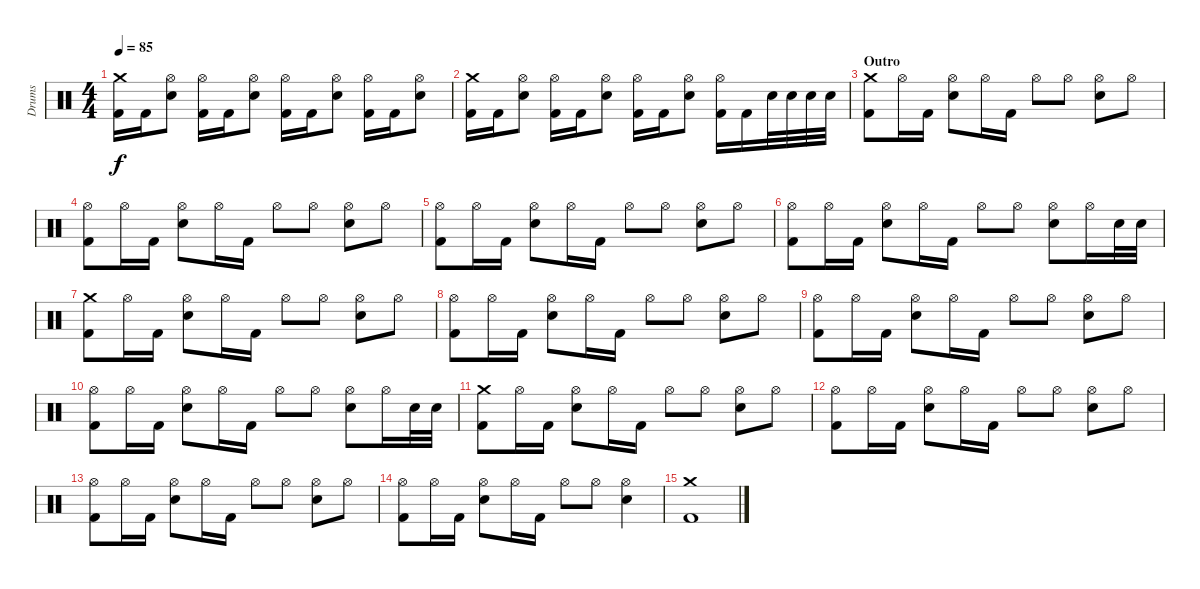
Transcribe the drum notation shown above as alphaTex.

\track ("Drums" "Drums") {instrument percussion}
\staff {score}
\articulation defaults
\ts (4 4)
\tempo 85
\clef neutral
\ks c
("Crash medium (hit)" "Kick (hit) 2").16{dy f} "Kick (hit) 2".16 ("Hi-Hat (open)" "Electric Snare (hit)").8 ("Hi-Hat (open)" "Kick (hit) 2").16 "Kick (hit) 2".16 ("Hi-Hat (open)" "Electric Snare (hit)").8 ("Hi-Hat (open)" "Kick (hit) 2").16 "Kick (hit) 2".16 ("Hi-Hat (open)" "Electric Snare (hit)").8 ("Hi-Hat (open)" "Kick (hit) 2").16 "Kick (hit) 2".16 ("Hi-Hat (open)" "Electric Snare (hit)").8 |
("Crash medium (hit)" "Kick (hit) 2").16 "Kick (hit) 2".16 ("Hi-Hat (open)" "Electric Snare (hit)").8 ("Hi-Hat (open)" "Kick (hit) 2").16 "Kick (hit) 2".16 ("Hi-Hat (open)" "Electric Snare (hit)").8 ("Hi-Hat (open)" "Kick (hit) 2").16 "Kick (hit) 2".16 ("Hi-Hat (open)" "Electric Snare (hit)").8 ("Hi-Hat (open)" "Kick (hit) 2").16 "Kick (hit) 2".16 "Electric Snare (hit)".32 "Electric Snare (hit)".32 "Electric Snare (hit)".32 "Electric Snare (hit)".32 |
\section ("" "Outro")
("Crash medium (hit)" "Kick (hit) 2").8 "Hi-Hat (open)".16 "Kick (hit) 2".16 ("Hi-Hat (open)" "Electric Snare (hit)").8 "Hi-Hat (open)".16 "Kick (hit) 2".16 "Hi-Hat (open)".8 "Hi-Hat (open)".8 ("Hi-Hat (open)" "Electric Snare (hit)").8 "Hi-Hat (open)".8 |
("Hi-Hat (open)" "Kick (hit) 2").8 "Hi-Hat (open)".16 "Kick (hit) 2".16 ("Hi-Hat (open)" "Electric Snare (hit)").8 "Hi-Hat (open)".16 "Kick (hit) 2".16 "Hi-Hat (open)".8 "Hi-Hat (open)".8 ("Hi-Hat (open)" "Electric Snare (hit)").8 "Hi-Hat (open)".8 |
("Hi-Hat (open)" "Kick (hit) 2").8 "Hi-Hat (open)".16 "Kick (hit) 2".16 ("Hi-Hat (open)" "Electric Snare (hit)").8 "Hi-Hat (open)".16 "Kick (hit) 2".16 "Hi-Hat (open)".8 "Hi-Hat (open)".8 ("Hi-Hat (open)" "Electric Snare (hit)").8 "Hi-Hat (open)".8 |
("Hi-Hat (open)" "Kick (hit) 2").8 "Hi-Hat (open)".16 "Kick (hit) 2".16 ("Hi-Hat (open)" "Electric Snare (hit)").8 "Hi-Hat (open)".16 "Kick (hit) 2".16 "Hi-Hat (open)".8 "Hi-Hat (open)".8 ("Hi-Hat (open)" "Electric Snare (hit)").8 "Hi-Hat (open)".16 "Electric Snare (hit)".32 "Electric Snare (hit)".32 |
("Crash medium (hit)" "Kick (hit) 2").8{volume 10} "Hi-Hat (open)".16 "Kick (hit) 2".16 ("Hi-Hat (open)" "Electric Snare (hit)").8 "Hi-Hat (open)".16 "Kick (hit) 2".16 "Hi-Hat (open)".8 "Hi-Hat (open)".8 ("Hi-Hat (open)" "Electric Snare (hit)").8 "Hi-Hat (open)".8 |
("Hi-Hat (open)" "Kick (hit) 2").8 "Hi-Hat (open)".16 "Kick (hit) 2".16 ("Hi-Hat (open)" "Electric Snare (hit)").8 "Hi-Hat (open)".16 "Kick (hit) 2".16 "Hi-Hat (open)".8 "Hi-Hat (open)".8 ("Hi-Hat (open)" "Electric Snare (hit)").8 "Hi-Hat (open)".8 |
("Hi-Hat (open)" "Kick (hit) 2").8{volume 5} "Hi-Hat (open)".16 "Kick (hit) 2".16 ("Hi-Hat (open)" "Electric Snare (hit)").8 "Hi-Hat (open)".16 "Kick (hit) 2".16 "Hi-Hat (open)".8 "Hi-Hat (open)".8 ("Hi-Hat (open)" "Electric Snare (hit)").8 "Hi-Hat (open)".8 |
("Hi-Hat (open)" "Kick (hit) 2").8 "Hi-Hat (open)".16 "Kick (hit) 2".16 ("Hi-Hat (open)" "Electric Snare (hit)").8 "Hi-Hat (open)".16 "Kick (hit) 2".16 "Hi-Hat (open)".8 "Hi-Hat (open)".8 ("Hi-Hat (open)" "Electric Snare (hit)").8 "Hi-Hat (open)".16 "Electric Snare (hit)".32 "Electric Snare (hit)".32 |
("Crash medium (hit)" "Kick (hit) 2").8{volume 3} "Hi-Hat (open)".16 "Kick (hit) 2".16 ("Hi-Hat (open)" "Electric Snare (hit)").8 "Hi-Hat (open)".16 "Kick (hit) 2".16 "Hi-Hat (open)".8 "Hi-Hat (open)".8 ("Hi-Hat (open)" "Electric Snare (hit)").8 "Hi-Hat (open)".8 |
("Hi-Hat (open)" "Kick (hit) 2").8 "Hi-Hat (open)".16 "Kick (hit) 2".16 ("Hi-Hat (open)" "Electric Snare (hit)").8 "Hi-Hat (open)".16 "Kick (hit) 2".16 "Hi-Hat (open)".8 "Hi-Hat (open)".8 ("Hi-Hat (open)" "Electric Snare (hit)").8 "Hi-Hat (open)".8 |
("Hi-Hat (open)" "Kick (hit) 2").8{volume 0} "Hi-Hat (open)".16 "Kick (hit) 2".16 ("Hi-Hat (open)" "Electric Snare (hit)").8 "Hi-Hat (open)".16 "Kick (hit) 2".16 "Hi-Hat (open)".8 "Hi-Hat (open)".8 ("Hi-Hat (open)" "Electric Snare (hit)").8 "Hi-Hat (open)".8 |
("Hi-Hat (open)" "Kick (hit) 2").8 "Hi-Hat (open)".16 "Kick (hit) 2".16 ("Hi-Hat (open)" "Electric Snare (hit)").8 "Hi-Hat (open)".16 "Kick (hit) 2".16 "Hi-Hat (open)".8 "Hi-Hat (open)".8 ("Hi-Hat (open)" "Electric Snare (hit)").4 |
("Crash medium (hit)" "Kick (hit) 2").1
